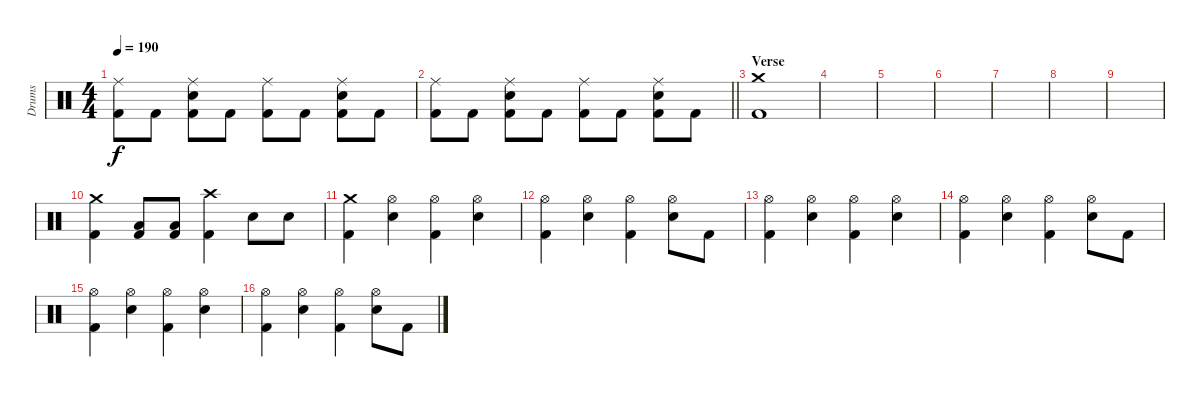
\track ("Drums" "Drums") {instrument percussion}
\staff {score}
\articulation defaults
\ts (4 4)
\tempo 190
\clef neutral
\ks c
("Ride (middle)" "Kick (hit) 2").8{dy f} "Kick (hit) 2".8 ("Ride (middle)" "Snare (hit) 2" "Kick (hit) 2").8 "Kick (hit) 2".8 ("Ride (middle)" "Kick (hit) 2").8 "Kick (hit) 2".8 ("Ride (middle)" "Snare (hit) 2" "Kick (hit) 2").8 "Kick (hit) 2".8 |
\barLineRight lightlight
("Ride (middle)" "Kick (hit) 2").8 "Kick (hit) 2".8 ("Ride (middle)" "Snare (hit) 2" "Kick (hit) 2").8 "Kick (hit) 2".8 ("Ride (middle)" "Kick (hit) 2").8 "Kick (hit) 2".8 ("Ride (middle)" "Snare (hit) 2" "Kick (hit) 2").8 "Kick (hit) 2".8 |
\section ("" "Verse")
("Crash medium (hit)" "Kick (hit) 2").1 |
|
|
|
|
|
|
("Crash medium (hit)" "Kick (hit) 2").4 ("Low Tom (hit)" "Kick (hit) 2").8 ("Low Tom (hit)" "Kick (hit) 2").8 ("Crash high (hit)" "Kick (hit) 2").4 "Snare (hit) 2".8 "Snare (hit) 2".8 |
("Crash medium (hit)" "Kick (hit) 2").4 ("Hi-Hat (open)" "Snare (hit) 2").4 ("Hi-Hat (open)" "Kick (hit) 2").4 ("Hi-Hat (open)" "Snare (hit) 2").4 |
("Hi-Hat (open)" "Kick (hit) 2").4 ("Hi-Hat (open)" "Snare (hit) 2").4 ("Hi-Hat (open)" "Kick (hit) 2").4 ("Hi-Hat (open)" "Snare (hit) 2").8 "Kick (hit) 2".8 |
("Hi-Hat (open)" "Kick (hit) 2").4 ("Hi-Hat (open)" "Snare (hit) 2").4 ("Hi-Hat (open)" "Kick (hit) 2").4 ("Hi-Hat (open)" "Snare (hit) 2").4 |
("Hi-Hat (open)" "Kick (hit) 2").4 ("Hi-Hat (open)" "Snare (hit) 2").4 ("Hi-Hat (open)" "Kick (hit) 2").4 ("Hi-Hat (open)" "Snare (hit) 2").8 "Kick (hit) 2".8 |
("Hi-Hat (open)" "Kick (hit) 2").4 ("Hi-Hat (open)" "Snare (hit) 2").4 ("Hi-Hat (open)" "Kick (hit) 2").4 ("Hi-Hat (open)" "Snare (hit) 2").4 |
("Hi-Hat (open)" "Kick (hit) 2").4 ("Hi-Hat (open)" "Snare (hit) 2").4 ("Hi-Hat (open)" "Kick (hit) 2").4 ("Hi-Hat (open)" "Snare (hit) 2").8 "Kick (hit) 2".8
